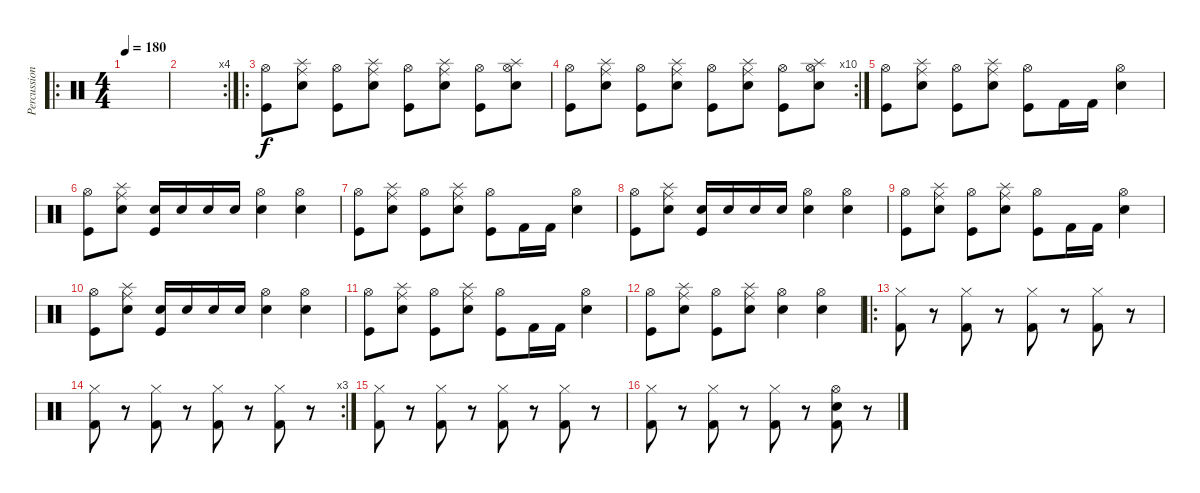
\track ("Percussions" "Percussion") {instrument percussion}
\staff {score}
\articulation defaults
\ro
\ts (4 4)
\tempo 180
\clef neutral
\ks c
|
\rc 4
|
\ro
("Kick (hit)" "Hi-Hat (open)").8 ("Snare (hit) 2" "Ride (middle)" "Splash (hit)").8 ("Kick (hit)" "Hi-Hat (open)").8 ("Snare (hit) 2" "Ride (middle)" "Splash (hit)").8 ("Kick (hit)" "Hi-Hat (open)").8 ("Snare (hit) 2" "Ride (middle)" "Splash (hit)").8 ("Kick (hit)" "Hi-Hat (open)").8 ("Snare (hit) 2" "Hi-Hat (open)" "Splash (hit)").8 |
\rc 10
("Kick (hit)" "Hi-Hat (open)").8 ("Snare (hit) 2" "Ride (middle)" "Splash (hit)").8 ("Kick (hit)" "Hi-Hat (open)").8 ("Snare (hit) 2" "Ride (middle)" "Splash (hit)").8 ("Kick (hit)" "Hi-Hat (open)").8 ("Snare (hit) 2" "Ride (middle)" "Splash (hit)").8 ("Kick (hit)" "Hi-Hat (open)").8 ("Snare (hit) 2" "Hi-Hat (open)" "Splash (hit)").8 |
("Kick (hit)" "Hi-Hat (open)").8 ("Snare (hit) 2" "Ride (middle)" "Splash (hit)").8 ("Kick (hit)" "Hi-Hat (open)").8 ("Snare (hit) 2" "Ride (middle)" "Splash (hit)").8 ("Kick (hit)" "Hi-Hat (open)").8 "Kick (hit) 2".16 "Kick (hit) 2".16 ("Hi-Hat (open)" "Electric Snare (hit)").4 |
("Kick (hit)" "Hi-Hat (open)").8 ("Snare (hit) 2" "Ride (middle)" "Splash (hit)").8 ("Electric Snare (hit)" "Kick (hit)").16 "Electric Snare (hit)".16 "Electric Snare (hit)".16 "Electric Snare (hit)".16 ("Hi-Hat (open)" "Electric Snare (hit)").4 ("Hi-Hat (open)" "Electric Snare (hit)").4 |
("Kick (hit)" "Hi-Hat (open)").8 ("Snare (hit) 2" "Ride (middle)" "Splash (hit)").8 ("Kick (hit)" "Hi-Hat (open)").8 ("Snare (hit) 2" "Ride (middle)" "Splash (hit)").8 ("Kick (hit)" "Hi-Hat (open)").8 "Kick (hit) 2".16 "Kick (hit) 2".16 ("Hi-Hat (open)" "Electric Snare (hit)").4 |
("Kick (hit)" "Hi-Hat (open)").8 ("Snare (hit) 2" "Ride (middle)" "Splash (hit)").8 ("Electric Snare (hit)" "Kick (hit)").16 "Electric Snare (hit)".16 "Electric Snare (hit)".16 "Electric Snare (hit)".16 ("Hi-Hat (open)" "Electric Snare (hit)").4 ("Hi-Hat (open)" "Electric Snare (hit)").4 |
("Kick (hit)" "Hi-Hat (open)").8 ("Snare (hit) 2" "Ride (middle)" "Splash (hit)").8 ("Kick (hit)" "Hi-Hat (open)").8 ("Snare (hit) 2" "Ride (middle)" "Splash (hit)").8 ("Kick (hit)" "Hi-Hat (open)").8 "Kick (hit) 2".16 "Kick (hit) 2".16 ("Hi-Hat (open)" "Electric Snare (hit)").4 |
("Kick (hit)" "Hi-Hat (open)").8 ("Snare (hit) 2" "Ride (middle)" "Splash (hit)").8 ("Electric Snare (hit)" "Kick (hit)").16 "Electric Snare (hit)".16 "Electric Snare (hit)".16 "Electric Snare (hit)".16 ("Hi-Hat (open)" "Electric Snare (hit)").4 ("Hi-Hat (open)" "Electric Snare (hit)").4 |
("Kick (hit)" "Hi-Hat (open)").8 ("Snare (hit) 2" "Ride (middle)" "Splash (hit)").8 ("Kick (hit)" "Hi-Hat (open)").8 ("Snare (hit) 2" "Ride (middle)" "Splash (hit)").8 ("Kick (hit)" "Hi-Hat (open)").8 "Kick (hit) 2".16 "Kick (hit) 2".16 ("Hi-Hat (open)" "Electric Snare (hit)").4 |
("Kick (hit)" "Hi-Hat (open)").8 ("Snare (hit) 2" "Ride (middle)" "Splash (hit)").8 ("Kick (hit)" "Hi-Hat (open)").8 ("Snare (hit) 2" "Ride (middle)" "Splash (hit)").8 ("Hi-Hat (open)" "Electric Snare (hit)").4 ("Hi-Hat (open)" "Electric Snare (hit)").4 |
\ro
("Hi-Hat (closed)" "Kick (hit) 2").8 r.8 ("Hi-Hat (closed)" "Kick (hit) 2").8 r.8 ("Hi-Hat (closed)" "Kick (hit) 2").8 r.8 ("Hi-Hat (closed)" "Kick (hit) 2").8 r.8 |
\rc 3
("Hi-Hat (closed)" "Kick (hit) 2").8 r.8 ("Hi-Hat (closed)" "Kick (hit) 2").8 r.8 ("Hi-Hat (closed)" "Kick (hit) 2").8 r.8 ("Hi-Hat (closed)" "Kick (hit) 2").8 r.8 |
("Hi-Hat (closed)" "Kick (hit) 2").8 r.8 ("Hi-Hat (closed)" "Kick (hit) 2").8 r.8 ("Hi-Hat (closed)" "Kick (hit) 2").8 r.8 ("Hi-Hat (closed)" "Kick (hit) 2").8 r.8 |
("Hi-Hat (closed)" "Kick (hit) 2").8 r.8 ("Hi-Hat (closed)" "Kick (hit) 2").8 r.8 ("Hi-Hat (closed)" "Kick (hit) 2").8 r.8 ("Hi-Hat (open)" "Electric Snare (hit)" "Kick (hit) 2").8 r.8
